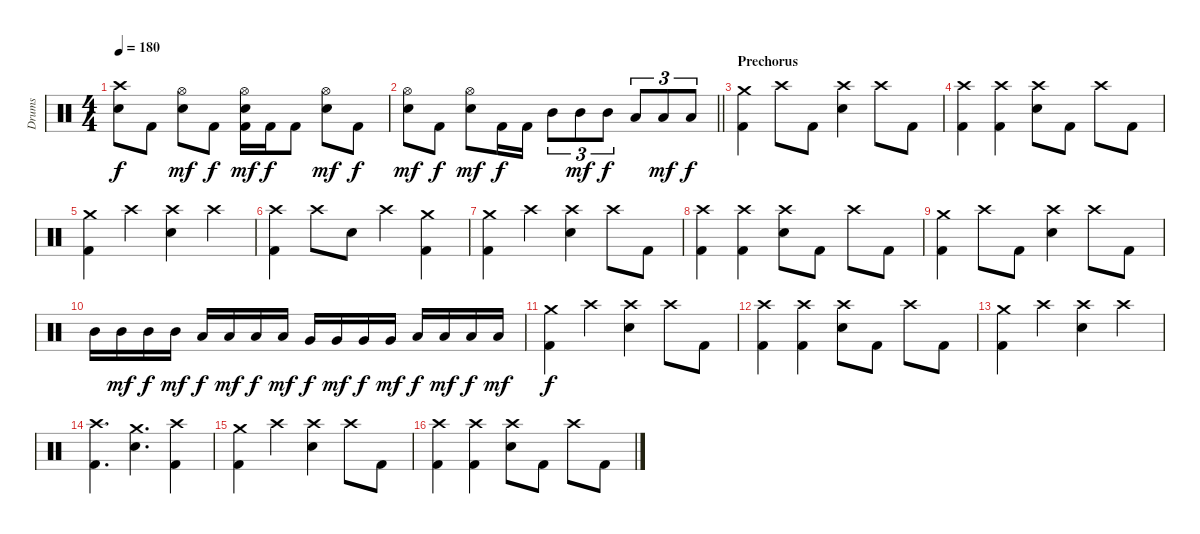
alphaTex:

\track ("Drums" "Drums") {instrument percussion}
\staff {score}
\articulation defaults
\ts (4 4)
\tempo 180
\clef neutral
\ks c
("Crash high (hit)" "Electric Snare (hit)").8{dy f} "Kick (hit) 2".8 ("Hi-Hat (open)" "Electric Snare (hit)").8{dy mf} "Kick (hit) 2".8{dy f} ("Kick (hit) 2" "Hi-Hat (open)" "Electric Snare (hit)").16{dy mf} "Kick (hit) 2".16{dy f} "Kick (hit) 2".8 ("Hi-Hat (open)" "Electric Snare (hit)").8{dy mf} "Kick (hit) 2".8{dy f} |
\barLineRight lightlight
("Hi-Hat (open)" "Electric Snare (hit)").8{dy mf} "Kick (hit) 2".8{dy f} ("Hi-Hat (open)" "Electric Snare (hit)").8{dy mf} "Kick (hit) 2".16{dy f} "Kick (hit) 2".16 "Mid Tom (hit)".8{tu (3 2)} "Mid Tom (hit)".8{tu (3 2) dy mf} "Mid Tom (hit)".8{tu (3 2) dy f} "Low Tom (hit)".8{tu (3 2)} "Low Tom (hit)".8{tu (3 2) dy mf} "Low Tom (hit)".8{tu (3 2) dy f} |
\section ("" "Prechorus")
("Kick (hit) 2" "Crash medium (hit)").4 "Crash high (hit)".8 "Kick (hit) 2".8 ("Crash high (hit)" "Electric Snare (hit)").4 "Crash high (hit)".8 "Kick (hit) 2".8 |
("Kick (hit) 2" "Crash high (hit)").4 ("Kick (hit) 2" "Crash high (hit)").4 ("Crash high (hit)" "Electric Snare (hit)").8 "Kick (hit) 2".8 "Crash high (hit)".8 "Kick (hit) 2".8 |
("Kick (hit) 2" "Crash medium (hit)").4 "Crash high (hit)".4 ("Crash high (hit)" "Electric Snare (hit)").4 "Crash high (hit)".4 |
("Kick (hit) 2" "Crash high (hit)").4 "Crash high (hit)".8 "Electric Snare (hit)".8 "Crash high (hit)".4 ("Kick (hit) 2" "Crash medium (hit)").4 |
("Kick (hit) 2" "Crash medium (hit)").4 "Crash high (hit)".4 ("Crash high (hit)" "Electric Snare (hit)").4 "Crash high (hit)".8 "Kick (hit) 2".8 |
("Kick (hit) 2" "Crash high (hit)").4 ("Kick (hit) 2" "Crash high (hit)").4 ("Crash high (hit)" "Electric Snare (hit)").8 "Kick (hit) 2".8 "Crash high (hit)".8 "Kick (hit) 2".8 |
("Kick (hit) 2" "Crash medium (hit)").4 "Crash high (hit)".8 "Kick (hit) 2".8 ("Crash high (hit)" "Electric Snare (hit)").4 "Crash high (hit)".8 "Kick (hit) 2".8 |
"Mid Tom (hit)".16 "Mid Tom (hit)".16{dy mf} "Mid Tom (hit)".16{dy f} "Mid Tom (hit)".16{dy mf} "Low Tom (hit)".16{dy f} "Low Tom (hit)".16{dy mf} "Low Tom (hit)".16{dy f} "Low Tom (hit)".16{dy mf} "Very Low Tom (hit)".16{dy f} "Very Low Tom (hit)".16{dy mf} "Very Low Tom (hit)".16{dy f} "Very Low Tom (hit)".16{dy mf} "Low Floor Tom (hit)".16{dy f} "Low Floor Tom (hit)".16{dy mf} "Low Floor Tom (hit)".16{dy f} "Low Floor Tom (hit)".16{dy mf} |
("Kick (hit) 2" "Crash medium (hit)").4{dy f} "Crash high (hit)".4 ("Crash high (hit)" "Electric Snare (hit)").4 "Crash high (hit)".8 "Kick (hit) 2".8 |
("Kick (hit) 2" "Crash high (hit)").4 ("Kick (hit) 2" "Crash high (hit)").4 ("Crash high (hit)" "Electric Snare (hit)").8 "Kick (hit) 2".8 "Crash high (hit)".8 "Kick (hit) 2".8 |
("Kick (hit) 2" "Crash medium (hit)").4 "Crash high (hit)".4 ("Crash high (hit)" "Electric Snare (hit)").4 "Crash high (hit)".4 |
("Kick (hit) 2" "Crash high (hit)").4{d} ("Crash medium (hit)" "Electric Snare (hit)").4{d} ("Kick (hit) 2" "Crash high (hit)").4 |
("Kick (hit) 2" "Crash medium (hit)").4 "Crash high (hit)".4 ("Crash high (hit)" "Electric Snare (hit)").4 "Crash high (hit)".8 "Kick (hit) 2".8 |
("Kick (hit) 2" "Crash high (hit)").4 ("Kick (hit) 2" "Crash high (hit)").4 ("Crash high (hit)" "Electric Snare (hit)").8 "Kick (hit) 2".8 "Crash high (hit)".8 "Kick (hit) 2".8
